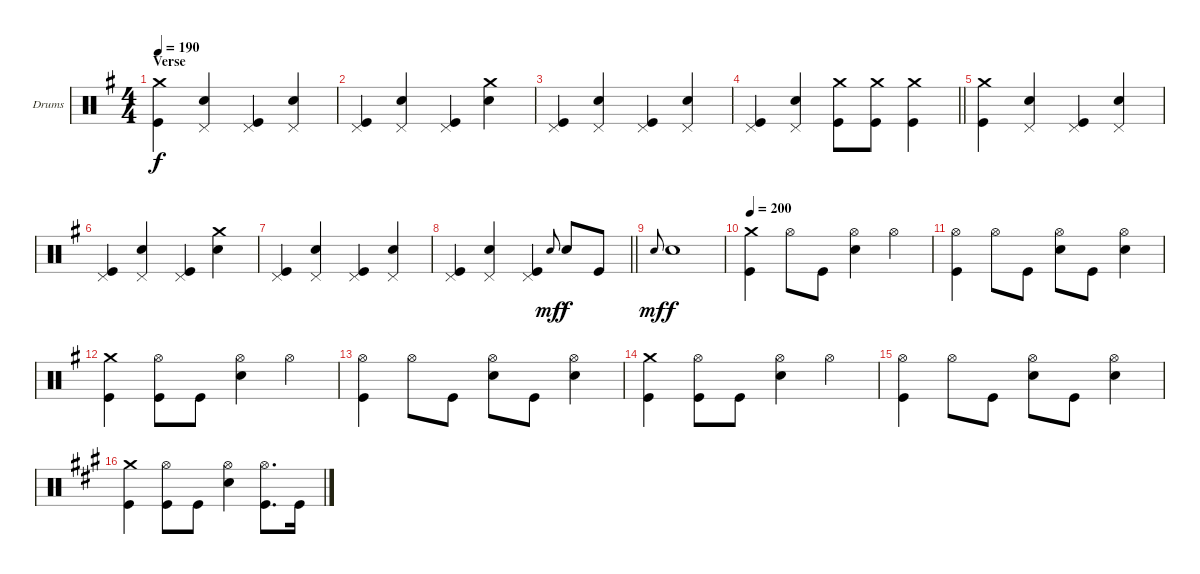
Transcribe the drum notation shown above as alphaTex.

\bracketExtendMode groupsimilarinstruments
\firstSystemTrackNameOrientation horizontal
\otherSystemsTrackNameOrientation horizontal
\track ("Drums" "Drums") {instrument percussion}
\staff {score}
\articulation defaults
\ts (4 4)
\section ("" "Verse")
\tempo 190
\clef neutral
\ks g
("Crash medium (hit)" "Kick (hit)").4{dy f} ("Pedal Hi-Hat (hit)" "Snare (hit) 2").4 ("Pedal Hi-Hat (hit)" "Kick (hit)").4 ("Pedal Hi-Hat (hit)" "Snare (hit) 2").4 |
("Pedal Hi-Hat (hit)" "Kick (hit)").4 ("Pedal Hi-Hat (hit)" "Snare (hit) 2").4 ("Pedal Hi-Hat (hit)" "Kick (hit)").4 ("Crash medium (hit)" "Snare (hit) 2").4 |
("Pedal Hi-Hat (hit)" "Kick (hit)").4 ("Pedal Hi-Hat (hit)" "Snare (hit) 2").4 ("Pedal Hi-Hat (hit)" "Kick (hit)").4 ("Pedal Hi-Hat (hit)" "Snare (hit) 2").4 |
\barLineRight lightlight
("Pedal Hi-Hat (hit)" "Kick (hit)").4 ("Pedal Hi-Hat (hit)" "Snare (hit) 2").4 ("Crash medium (hit)" "Kick (hit)").8 ("Crash medium (hit)" "Kick (hit)").8 ("Crash medium (hit)" "Kick (hit)").4 |
("Crash medium (hit)" "Kick (hit)").4 ("Pedal Hi-Hat (hit)" "Snare (hit) 2").4 ("Pedal Hi-Hat (hit)" "Kick (hit)").4 ("Pedal Hi-Hat (hit)" "Snare (hit) 2").4 |
("Pedal Hi-Hat (hit)" "Kick (hit)").4 ("Pedal Hi-Hat (hit)" "Snare (hit) 2").4 ("Pedal Hi-Hat (hit)" "Kick (hit)").4 ("Crash medium (hit)" "Snare (hit) 2").4 |
("Pedal Hi-Hat (hit)" "Kick (hit)").4 ("Pedal Hi-Hat (hit)" "Snare (hit) 2").4 ("Pedal Hi-Hat (hit)" "Kick (hit)").4 ("Pedal Hi-Hat (hit)" "Snare (hit) 2").4 |
\barLineRight lightlight
("Pedal Hi-Hat (hit)" "Kick (hit)").4 ("Pedal Hi-Hat (hit)" "Snare (hit) 2").4 ("Pedal Hi-Hat (hit)" "Kick (hit)").4 "Snare (hit) 2".8{gr onbeat dy mf} "Snare (hit) 2".8{dy f} "Kick (hit)".8 |
"Snare (hit) 2".8{gr onbeat dy mf} "Snare (hit) 2".1{dy f} |
\tempo 200
("Crash medium (hit)" "Kick (hit)").4 "Hi-Hat (open)".8 "Kick (hit)".8 ("Hi-Hat (open)" "Snare (hit) 2").4 "Hi-Hat (open)".4 |
("Kick (hit)" "Hi-Hat (open)").4 "Hi-Hat (open)".8 "Kick (hit)".8 ("Snare (hit) 2" "Hi-Hat (open)").8 "Kick (hit)".8 ("Snare (hit) 2" "Hi-Hat (open)").4 |
("Crash medium (hit)" "Kick (hit)").4 ("Kick (hit)" "Hi-Hat (open)").8 "Kick (hit)".8 ("Hi-Hat (open)" "Snare (hit) 2").4 "Hi-Hat (open)".4 |
("Kick (hit)" "Hi-Hat (open)").4 "Hi-Hat (open)".8 "Kick (hit)".8 ("Snare (hit) 2" "Hi-Hat (open)").8 "Kick (hit)".8 ("Snare (hit) 2" "Hi-Hat (open)").4 |
("Crash medium (hit)" "Kick (hit)").4 ("Hi-Hat (open)" "Kick (hit)").8 "Kick (hit)".8 ("Hi-Hat (open)" "Snare (hit) 2").4 "Hi-Hat (open)".4 |
("Kick (hit)" "Hi-Hat (open)").4 "Hi-Hat (open)".8 "Kick (hit)".8 ("Snare (hit) 2" "Hi-Hat (open)").8 "Kick (hit)".8 ("Snare (hit) 2" "Hi-Hat (open)").4 |
\ks a
("Crash medium (hit)" "Kick (hit)").4 ("Hi-Hat (open)" "Kick (hit)").8 "Kick (hit)".8 ("Hi-Hat (open)" "Snare (hit) 2").4 ("Hi-Hat (open)" "Kick (hit)").8{d} "Kick (hit)".16
